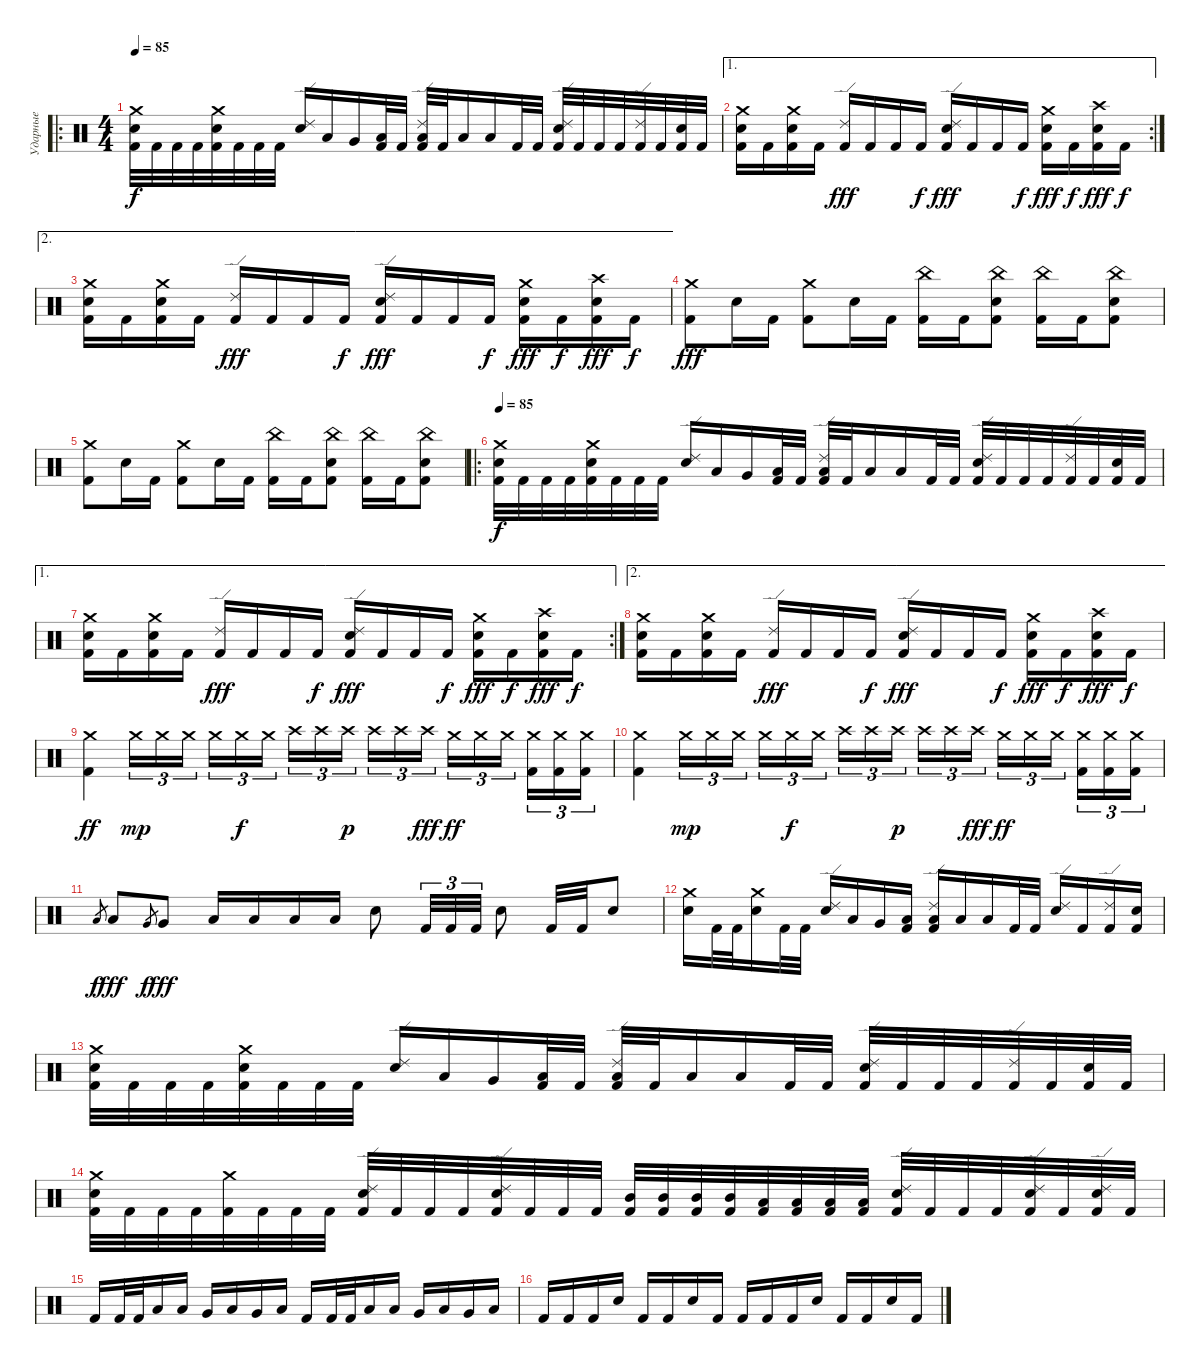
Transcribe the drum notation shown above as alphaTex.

\track ("Ударные" "Ударные") {instrument percussion}
\staff {score}
\articulation defaults
\ro
\ts (4 4)
\tempo 85
\clef neutral
\ks c
("Crash medium (hit)" "Electric Snare (hit)" "Kick (hit) 2").32{dy f} "Kick (hit) 2".32 "Kick (hit) 2".32 "Kick (hit) 2".32 ("Crash medium (hit)" "Electric Snare (hit)" "Kick (hit) 2").32 "Kick (hit) 2".32 "Kick (hit) 2".32 "Kick (hit) 2".32 ("Ride (edge) 2" "Electric Snare (hit)").16 "Low Tom (hit)".16 "Very Low Tom (hit)".16 ("Low Floor Tom (hit)" "Kick (hit) 2").32 "Kick (hit) 2".32 ("Ride (edge) 2" "Low Floor Tom (hit)" "Kick (hit) 2").32 "Kick (hit) 2".32 "Low Floor Tom (hit)".16 "Low Floor Tom (hit)".16 "Kick (hit) 2".32 "Kick (hit) 2".32 ("Ride (edge) 2" "Electric Snare (hit)" "Kick (hit) 2").32 "Kick (hit) 2".32 "Kick (hit) 2".32 "Kick (hit) 2".32 ("Ride (edge) 2" "Kick (hit) 2").32 "Kick (hit) 2".32 ("Electric Snare (hit)" "Kick (hit) 2").32 "Kick (hit) 2".32 |
\ae 1
\rc 2
("Crash medium (hit)" "Electric Snare (hit)" "Kick (hit) 2").16 "Kick (hit) 2".16 ("Crash medium (hit)" "Electric Snare (hit)" "Kick (hit) 2").16 "Kick (hit) 2".16 ("Ride (edge) 2" "Kick (hit) 2").16{dy fff} "Kick (hit) 2".16 "Kick (hit) 2".16 "Kick (hit) 2".16{dy f} ("Ride (edge) 2" "Electric Snare (hit)" "Kick (hit) 2").16{dy fff} "Kick (hit) 2".16 "Kick (hit) 2".16 "Kick (hit) 2".16{dy f} ("Crash medium (hit)" "Electric Snare (hit)" "Kick (hit) 2").16{dy fff} "Kick (hit) 2".16{dy f} ("Crash high (hit)" "Electric Snare (hit)" "Kick (hit) 2").16{dy fff} "Kick (hit) 2".16{dy f} |
\ae 2
("Crash medium (hit)" "Electric Snare (hit)" "Kick (hit) 2").16 "Kick (hit) 2".16 ("Crash medium (hit)" "Electric Snare (hit)" "Kick (hit) 2").16 "Kick (hit) 2".16 ("Ride (edge) 2" "Kick (hit) 2").16{dy fff} "Kick (hit) 2".16 "Kick (hit) 2".16 "Kick (hit) 2".16{dy f} ("Ride (edge) 2" "Electric Snare (hit)" "Kick (hit) 2").16{dy fff} "Kick (hit) 2".16 "Kick (hit) 2".16 "Kick (hit) 2".16{dy f} ("Crash medium (hit)" "Electric Snare (hit)" "Kick (hit) 2").16{dy fff} "Kick (hit) 2".16{dy f} ("Crash high (hit)" "Electric Snare (hit)" "Kick (hit) 2").16{dy fff} "Kick (hit) 2".16{dy f} |
("Crash medium (hit)" "Kick (hit) 2").8{dy fff} "Electric Snare (hit)".16 "Kick (hit) 2".16 ("Crash medium (hit)" "Kick (hit) 2").8 "Electric Snare (hit)".16 "Kick (hit) 2".16 ("China (hit)" "Kick (hit) 2").16 "Kick (hit) 2".16 ("China (hit)" "Electric Snare (hit)" "Kick (hit) 2").8 ("China (hit)" "Kick (hit) 2").16 "Kick (hit) 2".16 ("China (hit)" "Electric Snare (hit)" "Kick (hit) 2").8 |
("Crash medium (hit)" "Kick (hit) 2").8 "Electric Snare (hit)".16 "Kick (hit) 2".16 ("Crash medium (hit)" "Kick (hit) 2").8 "Electric Snare (hit)".16 "Kick (hit) 2".16 ("China (hit)" "Kick (hit) 2").16 "Kick (hit) 2".16 ("China (hit)" "Electric Snare (hit)" "Kick (hit) 2").8 ("China (hit)" "Kick (hit) 2").16 "Kick (hit) 2".16 ("China (hit)" "Electric Snare (hit)" "Kick (hit) 2").8 |
\ro
\tempo 85
("Crash medium (hit)" "Electric Snare (hit)" "Kick (hit) 2").32{dy f} "Kick (hit) 2".32 "Kick (hit) 2".32 "Kick (hit) 2".32 ("Crash medium (hit)" "Electric Snare (hit)" "Kick (hit) 2").32 "Kick (hit) 2".32 "Kick (hit) 2".32 "Kick (hit) 2".32 ("Ride (edge) 2" "Electric Snare (hit)").16 "Low Tom (hit)".16 "Very Low Tom (hit)".16 ("Low Floor Tom (hit)" "Kick (hit) 2").32 "Kick (hit) 2".32 ("Ride (edge) 2" "Low Floor Tom (hit)" "Kick (hit) 2").32 "Kick (hit) 2".32 "Low Floor Tom (hit)".16 "Low Floor Tom (hit)".16 "Kick (hit) 2".32 "Kick (hit) 2".32 ("Ride (edge) 2" "Electric Snare (hit)" "Kick (hit) 2").32 "Kick (hit) 2".32 "Kick (hit) 2".32 "Kick (hit) 2".32 ("Ride (edge) 2" "Kick (hit) 2").32 "Kick (hit) 2".32 ("Electric Snare (hit)" "Kick (hit) 2").32 "Kick (hit) 2".32 |
\ae 1
\rc 2
("Crash medium (hit)" "Electric Snare (hit)" "Kick (hit) 2").16 "Kick (hit) 2".16 ("Crash medium (hit)" "Electric Snare (hit)" "Kick (hit) 2").16 "Kick (hit) 2".16 ("Ride (edge) 2" "Kick (hit) 2").16{dy fff} "Kick (hit) 2".16 "Kick (hit) 2".16 "Kick (hit) 2".16{dy f} ("Ride (edge) 2" "Electric Snare (hit)" "Kick (hit) 2").16{dy fff} "Kick (hit) 2".16 "Kick (hit) 2".16 "Kick (hit) 2".16{dy f} ("Crash medium (hit)" "Electric Snare (hit)" "Kick (hit) 2").16{dy fff} "Kick (hit) 2".16{dy f} ("Crash high (hit)" "Electric Snare (hit)" "Kick (hit) 2").16{dy fff} "Kick (hit) 2".16{dy f} |
\ae 2
("Crash medium (hit)" "Electric Snare (hit)" "Kick (hit) 2").16 "Kick (hit) 2".16 ("Crash medium (hit)" "Electric Snare (hit)" "Kick (hit) 2").16 "Kick (hit) 2".16 ("Ride (edge) 2" "Kick (hit) 2").16{dy fff} "Kick (hit) 2".16 "Kick (hit) 2".16 "Kick (hit) 2".16{dy f} ("Ride (edge) 2" "Electric Snare (hit)" "Kick (hit) 2").16{dy fff} "Kick (hit) 2".16 "Kick (hit) 2".16 "Kick (hit) 2".16{dy f} ("Crash medium (hit)" "Electric Snare (hit)" "Kick (hit) 2").16{dy fff} "Kick (hit) 2".16{dy f} ("Crash high (hit)" "Electric Snare (hit)" "Kick (hit) 2").16{dy fff} "Kick (hit) 2".16{dy f} |
("Crash medium (hit)" "Kick (hit) 2").4{dy ff} "Crash medium (hit)".16{tu (3 2) dy mp} "Crash medium (hit)".16{tu (3 2)} "Crash medium (hit)".16{tu (3 2) beam splitsecondary} "Crash medium (hit)".16{tu (3 2)} "Crash medium (hit)".16{tu (3 2) dy f} "Crash medium (hit)".16{tu (3 2)} "Crash high (hit)".16{tu (3 2)} "Crash high (hit)".16{tu (3 2)} "Crash high (hit)".16{tu (3 2) dy p beam splitsecondary} "Crash high (hit)".16{tu (3 2)} "Crash high (hit)".16{tu (3 2)} "Crash high (hit)".16{tu (3 2) dy fff} "Crash medium (hit)".16{tu (3 2) dy ff} "Crash medium (hit)".16{tu (3 2)} "Crash medium (hit)".16{tu (3 2) beam splitsecondary} ("Crash medium (hit)" "Kick (hit) 2").16{tu (3 2)} ("Crash medium (hit)" "Kick (hit) 2").16{tu (3 2)} ("Crash medium (hit)" "Kick (hit) 2").16{tu (3 2)} |
("Crash medium (hit)" "Kick (hit) 2").4 "Crash medium (hit)".16{tu (3 2) dy mp} "Crash medium (hit)".16{tu (3 2)} "Crash medium (hit)".16{tu (3 2) beam splitsecondary} "Crash medium (hit)".16{tu (3 2)} "Crash medium (hit)".16{tu (3 2) dy f} "Crash medium (hit)".16{tu (3 2)} "Crash high (hit)".16{tu (3 2)} "Crash high (hit)".16{tu (3 2)} "Crash high (hit)".16{tu (3 2) dy p beam splitsecondary} "Crash high (hit)".16{tu (3 2)} "Crash high (hit)".16{tu (3 2)} "Crash high (hit)".16{tu (3 2) dy fff} "Crash medium (hit)".16{tu (3 2) dy ff} "Crash medium (hit)".16{tu (3 2)} "Crash medium (hit)".16{tu (3 2) beam splitsecondary} ("Crash medium (hit)" "Kick (hit) 2").16{tu (3 2)} ("Crash medium (hit)" "Kick (hit) 2").16{tu (3 2)} ("Crash medium (hit)" "Kick (hit) 2").16{tu (3 2)} |
"Low Tom (hit)".8{gr dy f} "Low Tom (hit)".8{dy fff} "Very Low Tom (hit)".8{gr dy f} "Very Low Tom (hit)".8{dy fff} "Low Floor Tom (hit)".16 "Low Floor Tom (hit)".16 "Low Floor Tom (hit)".16 "Low Floor Tom (hit)".16 "Electric Snare (hit)".8 "Kick (hit) 2".32{tu (3 2)} "Kick (hit) 2".32{tu (3 2)} "Kick (hit) 2".32{tu (3 2)} "Electric Snare (hit)".8 "Kick (hit) 2".32 "Kick (hit) 2".32 "Electric Snare (hit)".8 |
("Crash medium (hit)" "Electric Snare (hit)").16 "Kick (hit) 2".32 "Kick (hit) 2".32 ("Crash medium (hit)" "Electric Snare (hit)").16 "Kick (hit) 2".32 "Kick (hit) 2".32 ("Ride (edge) 2" "Electric Snare (hit)").16 "Low Tom (hit)".16 "Very Low Tom (hit)".16 ("Low Floor Tom (hit)" "Kick (hit) 2").16 ("Ride (edge) 2" "Low Floor Tom (hit)" "Kick (hit) 2").16 "Low Floor Tom (hit)".16 "Low Floor Tom (hit)".16 "Kick (hit) 2".32 "Kick (hit) 2".32 ("Ride (edge) 2" "Electric Snare (hit)").16 "Kick (hit) 2".16 ("Ride (edge) 2" "Kick (hit) 2").16 ("Electric Snare (hit)" "Kick (hit) 2").16 |
("Crash medium (hit)" "Electric Snare (hit)" "Kick (hit) 2").32 "Kick (hit) 2".32 "Kick (hit) 2".32 "Kick (hit) 2".32 ("Crash medium (hit)" "Electric Snare (hit)" "Kick (hit) 2").32 "Kick (hit) 2".32 "Kick (hit) 2".32 "Kick (hit) 2".32 ("Ride (edge) 2" "Electric Snare (hit)").16 "Low Tom (hit)".16 "Very Low Tom (hit)".16 ("Low Floor Tom (hit)" "Kick (hit) 2").32 "Kick (hit) 2".32 ("Ride (edge) 2" "Low Floor Tom (hit)" "Kick (hit) 2").32 "Kick (hit) 2".32 "Low Floor Tom (hit)".16 "Low Floor Tom (hit)".16 "Kick (hit) 2".32 "Kick (hit) 2".32 ("Ride (edge) 2" "Electric Snare (hit)" "Kick (hit) 2").32 "Kick (hit) 2".32 "Kick (hit) 2".32 "Kick (hit) 2".32 ("Ride (edge) 2" "Kick (hit) 2").32 "Kick (hit) 2".32 ("Electric Snare (hit)" "Kick (hit) 2").32 "Kick (hit) 2".32 |
("Crash medium (hit)" "Electric Snare (hit)" "Kick (hit) 2").32 "Kick (hit) 2".32 "Kick (hit) 2".32 "Kick (hit) 2".32 ("Crash medium (hit)" "Kick (hit) 2").32 "Kick (hit) 2".32 "Kick (hit) 2".32 "Kick (hit) 2".32 ("Ride (edge) 2" "Electric Snare (hit)" "Kick (hit) 2").32 "Kick (hit) 2".32 "Kick (hit) 2".32 "Kick (hit) 2".32 ("Ride (edge) 2" "Electric Snare (hit)" "Kick (hit) 2").32 "Kick (hit) 2".32 "Kick (hit) 2".32 "Kick (hit) 2".32 ("Mid Tom (hit)" "Kick (hit) 2").32 ("Mid Tom (hit)" "Kick (hit) 2").32 ("Mid Tom (hit)" "Kick (hit) 2").32 ("Mid Tom (hit)" "Kick (hit) 2").32 ("Low Tom (hit)" "Kick (hit) 2").32 ("Low Tom (hit)" "Kick (hit) 2").32 ("Low Tom (hit)" "Kick (hit) 2").32 ("Low Tom (hit)" "Kick (hit) 2").32 ("Ride (edge) 2" "Electric Snare (hit)" "Kick (hit) 2").32 "Kick (hit) 2".32 "Kick (hit) 2".32 "Kick (hit) 2".32 ("Ride (edge) 2" "Electric Snare (hit)" "Kick (hit) 2").32 "Kick (hit) 2".32 ("Ride (edge) 2" "Electric Snare (hit)" "Kick (hit) 2").32 "Kick (hit) 2".32 |
"Kick (hit) 2".16 "Kick (hit) 2".32 "Kick (hit) 2".32 "Low Tom (hit)".16 "Low Tom (hit)".16 "Very Low Tom (hit)".16 "Low Floor Tom (hit)".16 "Very Low Tom (hit)".16 "Low Floor Tom (hit)".16 "Kick (hit) 2".16 "Kick (hit) 2".32 "Kick (hit) 2".32 "Low Tom (hit)".16 "Low Tom (hit)".16 "Very Low Tom (hit)".16 "Low Floor Tom (hit)".16 "Very Low Tom (hit)".16 "Low Floor Tom (hit)".16 |
"Kick (hit) 2".16 "Kick (hit) 2".16 "Kick (hit) 2".16 "Electric Snare (hit)".16 "Kick (hit) 2".16 "Kick (hit) 2".16 "Electric Snare (hit)".16 "Kick (hit) 2".16 "Kick (hit) 2".16 "Kick (hit) 2".16 "Kick (hit) 2".16 "Electric Snare (hit)".16 "Kick (hit) 2".16 "Kick (hit) 2".16 "Electric Snare (hit)".16 "Kick (hit) 2".16
